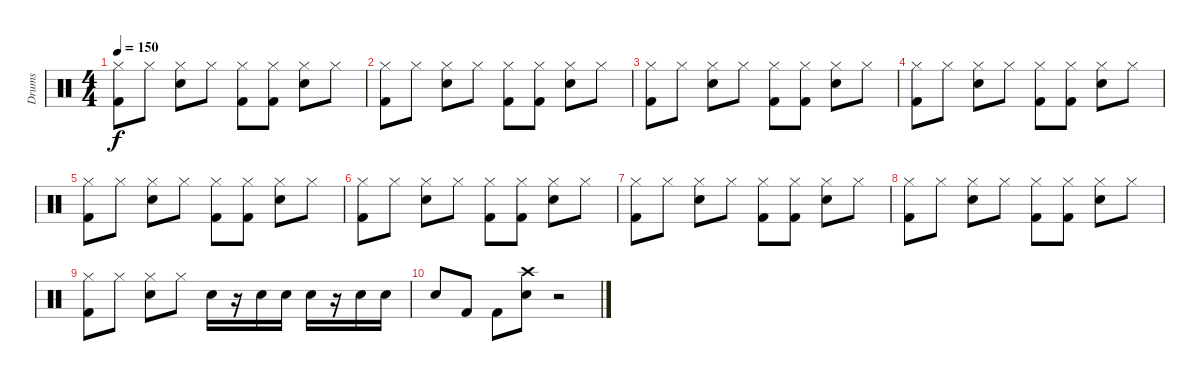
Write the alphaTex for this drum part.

\track ("Drums" "Drums") {instrument percussion}
\staff {score}
\articulation defaults
\ts (4 4)
\tempo 150
\clef neutral
\ks c
("Hi-Hat (closed)" "Kick (hit) 2").8{dy f} "Hi-Hat (closed)".8 ("Electric Snare (hit)" "Hi-Hat (closed)").8 "Hi-Hat (closed)".8 ("Hi-Hat (closed)" "Kick (hit) 2").8 ("Hi-Hat (closed)" "Kick (hit) 2").8 ("Electric Snare (hit)" "Hi-Hat (closed)").8 "Hi-Hat (closed)".8 |
("Hi-Hat (closed)" "Kick (hit) 2").8 "Hi-Hat (closed)".8 ("Electric Snare (hit)" "Hi-Hat (closed)").8 "Hi-Hat (closed)".8 ("Hi-Hat (closed)" "Kick (hit) 2").8 ("Hi-Hat (closed)" "Kick (hit) 2").8 ("Electric Snare (hit)" "Hi-Hat (closed)").8 "Hi-Hat (closed)".8 |
("Hi-Hat (closed)" "Kick (hit) 2").8 "Hi-Hat (closed)".8 ("Electric Snare (hit)" "Hi-Hat (closed)").8 "Hi-Hat (closed)".8 ("Hi-Hat (closed)" "Kick (hit) 2").8 ("Hi-Hat (closed)" "Kick (hit) 2").8 ("Electric Snare (hit)" "Hi-Hat (closed)").8 "Hi-Hat (closed)".8 |
("Hi-Hat (closed)" "Kick (hit) 2").8 "Hi-Hat (closed)".8 ("Electric Snare (hit)" "Hi-Hat (closed)").8 "Hi-Hat (closed)".8 ("Hi-Hat (closed)" "Kick (hit) 2").8 ("Hi-Hat (closed)" "Kick (hit) 2").8 ("Electric Snare (hit)" "Hi-Hat (closed)").8 "Hi-Hat (closed)".8 |
("Hi-Hat (closed)" "Kick (hit) 2").8 "Hi-Hat (closed)".8 ("Electric Snare (hit)" "Hi-Hat (closed)").8 "Hi-Hat (closed)".8 ("Hi-Hat (closed)" "Kick (hit) 2").8 ("Hi-Hat (closed)" "Kick (hit) 2").8 ("Electric Snare (hit)" "Hi-Hat (closed)").8 "Hi-Hat (closed)".8 |
("Hi-Hat (closed)" "Kick (hit) 2").8 "Hi-Hat (closed)".8 ("Electric Snare (hit)" "Hi-Hat (closed)").8 "Hi-Hat (closed)".8 ("Hi-Hat (closed)" "Kick (hit) 2").8 ("Hi-Hat (closed)" "Kick (hit) 2").8 ("Electric Snare (hit)" "Hi-Hat (closed)").8 "Hi-Hat (closed)".8 |
("Hi-Hat (closed)" "Kick (hit) 2").8 "Hi-Hat (closed)".8 ("Electric Snare (hit)" "Hi-Hat (closed)").8 "Hi-Hat (closed)".8 ("Hi-Hat (closed)" "Kick (hit) 2").8 ("Hi-Hat (closed)" "Kick (hit) 2").8 ("Electric Snare (hit)" "Hi-Hat (closed)").8 "Hi-Hat (closed)".8 |
("Hi-Hat (closed)" "Kick (hit) 2").8 "Hi-Hat (closed)".8 ("Electric Snare (hit)" "Hi-Hat (closed)").8 "Hi-Hat (closed)".8 ("Hi-Hat (closed)" "Kick (hit) 2").8 ("Hi-Hat (closed)" "Kick (hit) 2").8 ("Electric Snare (hit)" "Hi-Hat (closed)").8 "Hi-Hat (closed)".8 |
("Hi-Hat (closed)" "Kick (hit) 2").8 "Hi-Hat (closed)".8 ("Electric Snare (hit)" "Hi-Hat (closed)").8 "Hi-Hat (closed)".8 "Electric Snare (hit)".16 r.16 "Electric Snare (hit)".16 "Electric Snare (hit)".16 "Electric Snare (hit)".16 r.16 "Electric Snare (hit)".16 "Electric Snare (hit)".16 |
"Electric Snare (hit)".8 "Kick (hit) 2".8 "Kick (hit) 2".8 ("Crash high (hit)" "Electric Snare (hit)").8 r.2
